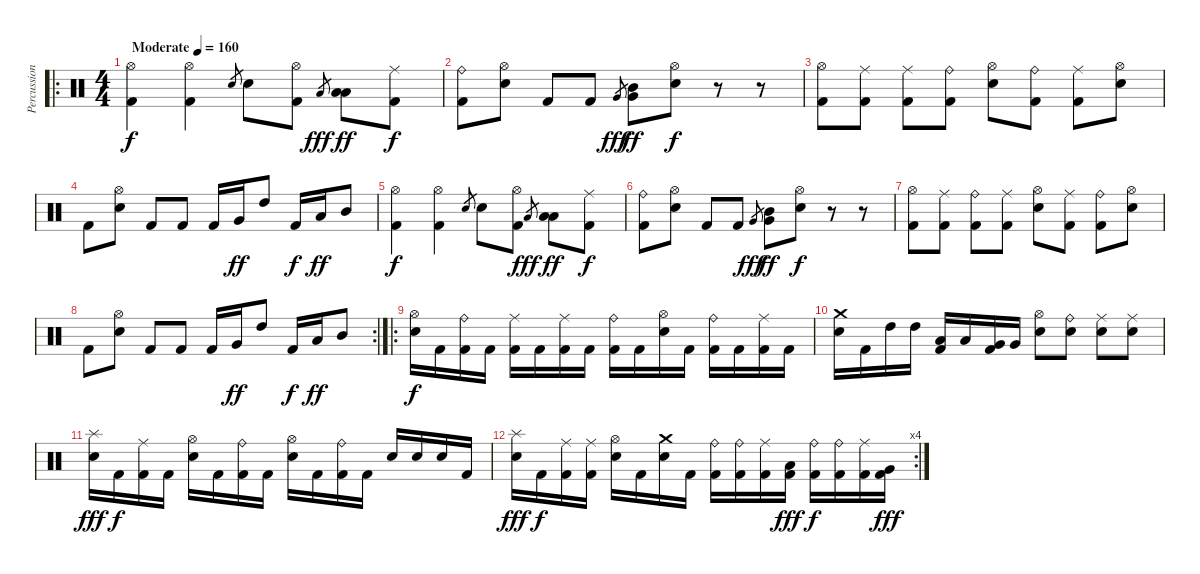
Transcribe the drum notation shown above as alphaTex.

\track ("Percussion" "Percussion") {instrument percussion}
\staff {score}
\articulation defaults
\ro
\ts (4 4)
\tempo (160 "Moderate")
\clef neutral
\ks c
("Hi-Hat (open)" "Kick (hit) 2").4{dy f} ("Hi-Hat (open)" "Kick (hit) 2").4 "Electric Snare (hit)".8{gr} "Electric Snare (hit)".8 ("Hi-Hat (open)" "Kick (hit) 2").8 "Low Floor Tom (hit)".8{gr dy fff} ("Low Floor Tom (hit)" "Low Tom (hit)").8{dy ff} ("Ride (middle)" "Kick (hit) 2").8{dy f} |
("Ride (bell)" "Kick (hit) 2").8 ("Hi-Hat (open)" "Electric Snare (hit)").8 "Kick (hit) 2".8 "Kick (hit) 2".8 "Very Low Tom (hit)".8{gr dy fff} ("Very Low Tom (hit)" "Mid Tom (hit)").8{dy ff} ("Hi-Hat (open)" "Electric Snare (hit)").8{dy f} r.8 r.8 |
("Hi-Hat (open)" "Kick (hit) 2").8 ("Ride (middle)" "Kick (hit) 2").8 ("Ride (middle)" "Kick (hit) 2").8 ("Ride (bell)" "Kick (hit) 2").8 ("Hi-Hat (open)" "Electric Snare (hit)").8 ("Ride (bell)" "Kick (hit) 2").8 ("Ride (middle)" "Kick (hit) 2").8 ("Hi-Hat (open)" "Electric Snare (hit)").8 |
"Kick (hit) 2".8 ("Hi-Hat (open)" "Electric Snare (hit)").8 "Kick (hit) 2".8 "Kick (hit) 2".8 "Kick (hit) 2".16 "Very Low Tom (hit)".16{dy ff} "High Tom (hit)".8 "Kick (hit) 2".16{dy f} "Low Floor Tom (hit)".16{dy ff} "Mid Tom (hit)".8 |
("Hi-Hat (open)" "Kick (hit) 2").4{dy f} ("Hi-Hat (open)" "Kick (hit) 2").4 "Electric Snare (hit)".8{gr} "Electric Snare (hit)".8 ("Hi-Hat (open)" "Kick (hit) 2").8 "Low Floor Tom (hit)".8{gr dy fff} ("Low Floor Tom (hit)" "Low Tom (hit)").8{dy ff} ("Ride (middle)" "Kick (hit) 2").8{dy f} |
("Ride (bell)" "Kick (hit) 2").8 ("Hi-Hat (open)" "Electric Snare (hit)").8 "Kick (hit) 2".8 "Kick (hit) 2".8 "Very Low Tom (hit)".8{gr dy fff} ("Very Low Tom (hit)" "Mid Tom (hit)").8{dy ff} ("Hi-Hat (open)" "Electric Snare (hit)").8{dy f} r.8 r.8 |
("Hi-Hat (open)" "Kick (hit) 2").8 ("Ride (middle)" "Kick (hit) 2").8 ("Ride (bell)" "Kick (hit) 2").8 ("Ride (middle)" "Kick (hit) 2").8 ("Hi-Hat (open)" "Electric Snare (hit)").8 ("Ride (middle)" "Kick (hit) 2").8 ("Ride (bell)" "Kick (hit) 2").8 ("Hi-Hat (open)" "Electric Snare (hit)").8 |
\rc 2 "Kick (hit) 2".8
("Hi-Hat (open)" "Electric Snare (hit)").8 "Kick (hit) 2".8 "Kick (hit) 2".8 "Kick (hit) 2".16 "Very Low Tom (hit)".16{dy ff} "High Tom (hit)".8 "Kick (hit) 2".16{dy f} "Low Floor Tom (hit)".16{dy ff} "Mid Tom (hit)".8 |
\ro
("Hi-Hat (open)" "Electric Snare (hit)").16{dy f} "Kick (hit) 2".16 ("Ride (bell)" "Kick (hit) 2").16 "Kick (hit) 2".16 ("Ride (middle)" "Kick (hit) 2").16 "Kick (hit) 2".16 ("Ride (middle)" "Kick (hit) 2").16 "Kick (hit) 2".16 ("Ride (bell)" "Kick (hit) 2").16 "Kick (hit) 2".16 ("Hi-Hat (open)" "Electric Snare (hit)").16 "Kick (hit) 2".16 ("Ride (bell)" "Kick (hit) 2").16 "Kick (hit) 2".16 ("Ride (middle)" "Kick (hit) 2").16 "Kick (hit) 2".16 |
("Crash medium (hit)" "Electric Snare (hit)").16 "Kick (hit) 2".16 "High Tom (hit)".16 "High Tom (hit)".16 ("Low Tom (hit)" "Kick (hit) 2").16 "Low Tom (hit)".16 ("Very Low Tom (hit)" "Kick (hit) 2").16 "Very Low Tom (hit)".16 ("Hi-Hat (open)" "Electric Snare (hit)").8 ("Ride (bell)" "Electric Snare (hit)").8 ("Ride (middle)" "Electric Snare (hit)").8 ("Ride (middle)" "Electric Snare (hit)").8 |
("Splash (hit)" "Electric Snare (hit)").16{dy fff} "Kick (hit) 2".16{dy f} ("Ride (middle)" "Kick (hit) 2").16 "Kick (hit) 2".16 ("Hi-Hat (open)" "Electric Snare (hit)").16 "Kick (hit) 2".16 ("Ride (bell)" "Kick (hit) 2").16 "Kick (hit) 2".16 ("Hi-Hat (open)" "Electric Snare (hit)").16 "Kick (hit) 2".16 ("Ride (bell)" "Kick (hit) 2").16 "Kick (hit) 2".16 "Electric Snare (hit)".16 "Electric Snare (hit)".16 "Electric Snare (hit)".16 "Kick (hit) 2".16 |
\rc 4
("Splash (hit)" "Electric Snare (hit)").16{dy fff} "Kick (hit) 2".16{dy f} ("Ride (middle)" "Kick (hit) 2").16 ("Ride (middle)" "Kick (hit) 2").16 ("Hi-Hat (open)" "Electric Snare (hit)").16 "Kick (hit) 2".16 ("Crash medium (hit)" "Electric Snare (hit)").16 "Kick (hit) 2".16 ("Ride (bell)" "Kick (hit) 2").16 ("Ride (bell)" "Kick (hit) 2").16 ("Ride (middle)" "Kick (hit) 2").16 ("Low Tom (hit)" "Kick (hit) 2").16{dy fff} ("Ride (bell)" "Kick (hit) 2").16{dy f} ("Ride (bell)" "Kick (hit) 2").16 ("Ride (middle)" "Kick (hit) 2").16 ("Very Low Tom (hit)" "Kick (hit) 2").16{dy fff}
